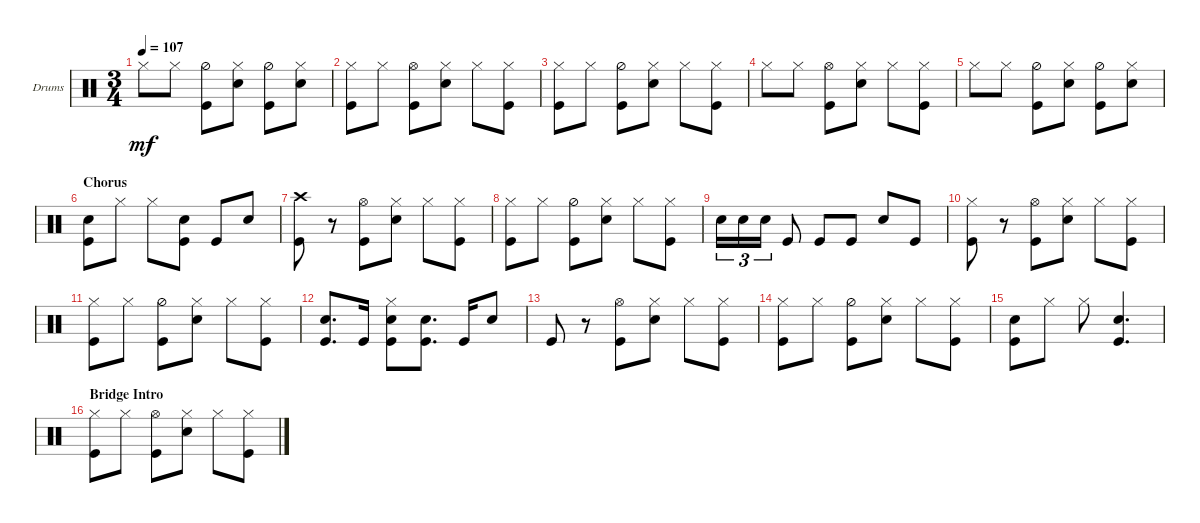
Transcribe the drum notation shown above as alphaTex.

\defaultSystemsLayout 4
\bracketExtendMode groupsimilarinstruments
\firstSystemTrackNameOrientation horizontal
\otherSystemsTrackNameOrientation horizontal
\track ("Drumkit" "Drums") {instrument percussion}
\staff {score}
\articulation defaults
\ts (3 4)
\tempo 107
\clef neutral
\ks c "Hi-Hat (closed)".8{dy mf} "Hi-Hat (closed)".8
("Hi-Hat (half)" "Kick (hit)").8 ("Hi-Hat (closed)" "Snare (hit) 2").8 ("Hi-Hat (half)" "Kick (hit)").8 ("Hi-Hat (closed)" "Snare (hit) 2").8 |
("Hi-Hat (closed)" "Kick (hit)").8 "Hi-Hat (closed)".8 ("Hi-Hat (open)" "Kick (hit)").8 ("Snare (hit) 2" "Hi-Hat (closed)").8 "Hi-Hat (closed)".8 ("Hi-Hat (closed)" "Kick (hit)").8 |
("Hi-Hat (closed)" "Kick (hit)").8 "Hi-Hat (closed)".8 ("Hi-Hat (half)" "Kick (hit)").8 ("Hi-Hat (closed)" "Snare (hit) 2").8 "Hi-Hat (closed)".8 ("Hi-Hat (closed)" "Kick (hit)").8 |
"Hi-Hat (closed)".8 "Hi-Hat (closed)".8 ("Hi-Hat (open)" "Kick (hit)").8 ("Snare (hit) 2" "Hi-Hat (closed)").8 "Hi-Hat (closed)".8 ("Kick (hit)" "Hi-Hat (closed)").8 |
"Hi-Hat (closed)".8 "Hi-Hat (closed)".8 ("Hi-Hat (half)" "Kick (hit)").8 ("Hi-Hat (closed)" "Snare (hit) 2").8 ("Hi-Hat (half)" "Kick (hit)").8 ("Hi-Hat (closed)" "Snare (hit) 2").8 |
\section ("" "Chorus")
("Kick (hit)" "Snare (hit) 2").8 "Hi-Hat (closed)".8 "Hi-Hat (closed)".8 ("Kick (hit)" "Snare (hit) 2").8 "Kick (hit)".8 "Snare (hit) 2".8 |
("Kick (hit)" "Crash high (hit)").8 r.8 ("Hi-Hat (open)" "Kick (hit)").8 ("Snare (hit) 2" "Hi-Hat (closed)").8 "Hi-Hat (closed)".8 ("Hi-Hat (closed)" "Kick (hit)").8 |
("Hi-Hat (closed)" "Kick (hit)").8 "Hi-Hat (closed)".8 ("Hi-Hat (half)" "Kick (hit)").8 ("Hi-Hat (closed)" "Snare (hit) 2").8 "Hi-Hat (closed)".8 ("Hi-Hat (closed)" "Kick (hit)").8 |
"Snare (hit) 2".16{tu (3 2)} "Snare (hit) 2".16{tu (3 2)} "Snare (hit) 2".16{tu (3 2)} "Kick (hit)".8 "Kick (hit)".8 "Kick (hit)".8 "Snare (hit) 2".8 "Kick (hit)".8 |
("Kick (hit)" "Hi-Hat (closed)").8 r.8 ("Hi-Hat (open)" "Kick (hit)").8 ("Snare (hit) 2" "Hi-Hat (closed)").8 "Hi-Hat (closed)".8 ("Hi-Hat (closed)" "Kick (hit)").8 |
("Hi-Hat (closed)" "Kick (hit)").8 "Hi-Hat (closed)".8 ("Hi-Hat (half)" "Kick (hit)").8 ("Hi-Hat (closed)" "Snare (hit) 2").8 "Hi-Hat (closed)".8 ("Hi-Hat (closed)" "Kick (hit)").8 |
("Kick (hit)" "Snare (hit) 2").8{d} "Kick (hit)".16 ("Hi-Hat (closed)" "Kick (hit)" "Snare (hit) 2").8 ("Kick (hit)" "Snare (hit) 2").8{d} "Kick (hit)".16 "Snare (hit) 2".8 |
"Kick (hit)".8 r.8 ("Hi-Hat (open)" "Kick (hit)").8 ("Snare (hit) 2" "Hi-Hat (closed)").8 "Hi-Hat (closed)".8 ("Hi-Hat (closed)" "Kick (hit)").8 |
("Hi-Hat (closed)" "Kick (hit)").8 "Hi-Hat (closed)".8 ("Hi-Hat (half)" "Kick (hit)").8 ("Hi-Hat (closed)" "Snare (hit) 2").8 "Hi-Hat (closed)".8 ("Hi-Hat (closed)" "Kick (hit)").8 |
("Kick (hit)" "Snare (hit) 2").8 "Hi-Hat (closed)".8 "Hi-Hat (closed)".8 ("Kick (hit)" "Snare (hit) 2").4{d} |
\section ("" "Bridge Intro")
("Hi-Hat (closed)" "Kick (hit)").8 "Hi-Hat (closed)".8 ("Hi-Hat (open)" "Kick (hit)").8 ("Snare (hit) 2" "Hi-Hat (closed)").8 "Hi-Hat (closed)".8 ("Hi-Hat (closed)" "Kick (hit)").8
